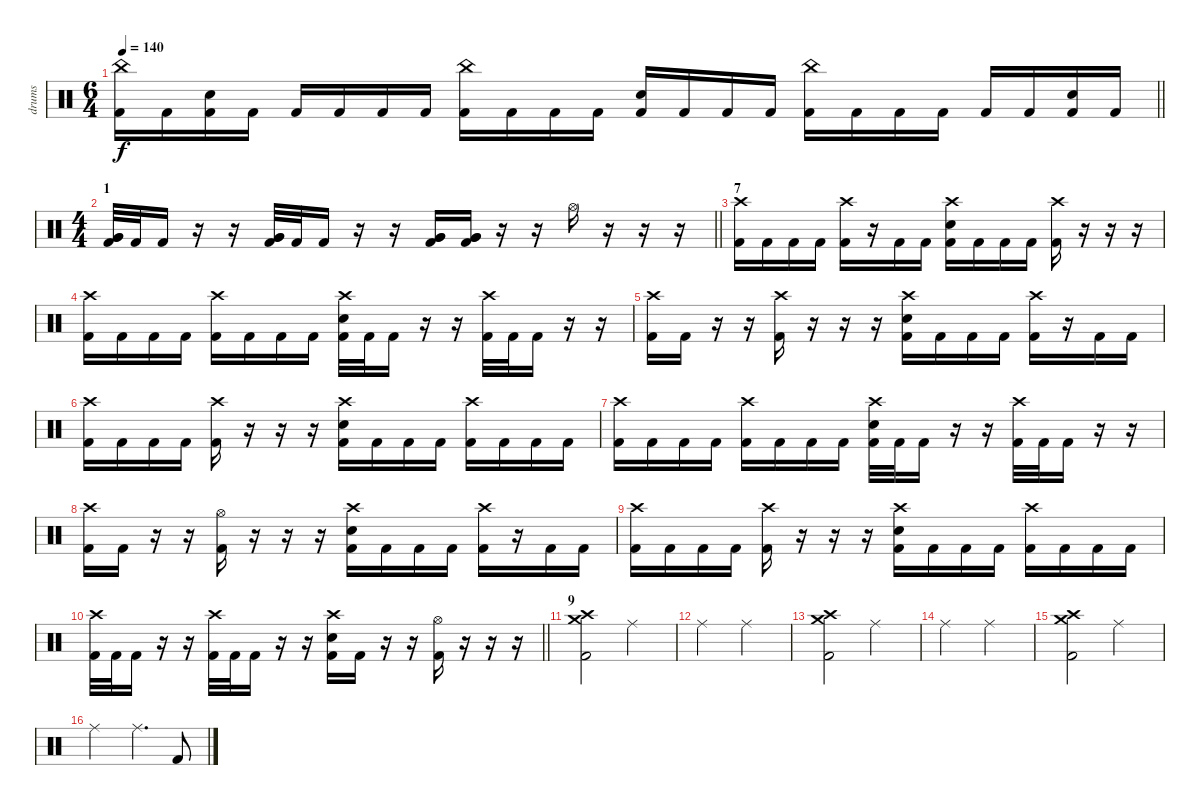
\track ("drums" "drums") {instrument percussion}
\staff {score}
\articulation defaults
\ts (6 4)
\tempo 140
\clef neutral
\barLineRight lightlight
\ks c
("China (hit)" "Kick (hit) 2").16{dy f} "Kick (hit) 2".16 ("Electric Snare (hit)" "Kick (hit) 2").16 "Kick (hit) 2".16 "Kick (hit) 2".16 "Kick (hit) 2".16 "Kick (hit) 2".16 "Kick (hit) 2".16 ("China (hit)" "Kick (hit) 2").16 "Kick (hit) 2".16 "Kick (hit) 2".16 "Kick (hit) 2".16 ("Electric Snare (hit)" "Kick (hit) 2").16 "Kick (hit) 2".16 "Kick (hit) 2".16 "Kick (hit) 2".16 ("China (hit)" "Kick (hit) 2").16 "Kick (hit) 2".16 "Kick (hit) 2".16 "Kick (hit) 2".16 "Kick (hit) 2".16 "Kick (hit) 2".16 ("Electric Snare (hit)" "Kick (hit) 2").16 "Kick (hit) 2".16 |
\ts (4 4)
\section ("" "1")
\barLineRight lightlight
("Very Low Tom (hit)" "Very Low Tom (hit)" "Kick (hit) 2").32 "Kick (hit) 2".32 "Kick (hit) 2".16 r.16 r.16 ("Very Low Tom (hit)" "Very Low Tom (hit)" "Kick (hit) 2").32 "Kick (hit) 2".32 "Kick (hit) 2".16 r.16 r.16 ("Very Low Tom (hit)" "Very Low Tom (hit)" "Kick (hit) 2").16 ("Very Low Tom (hit)" "Very Low Tom (hit)" "Kick (hit) 2").16 r.16 r.16 "Hi-Hat (open)".16 r.16 r.16 r.16 |
\section ("" "7")
("Crash high (hit)" "Kick (hit) 2").16 "Kick (hit) 2".16 "Kick (hit) 2".16 "Kick (hit) 2".16 ("Crash high (hit)" "Kick (hit) 2").16 r.16 "Kick (hit) 2".16 "Kick (hit) 2".16 ("Crash high (hit)" "Electric Snare (hit)" "Kick (hit) 2").16 "Kick (hit) 2".16 "Kick (hit) 2".16 "Kick (hit) 2".16 ("Crash high (hit)" "Kick (hit) 2").16 r.16 r.16 r.16 |
("Crash high (hit)" "Kick (hit) 2").16 "Kick (hit) 2".16 "Kick (hit) 2".16 "Kick (hit) 2".16 ("Crash high (hit)" "Kick (hit) 2").16 "Kick (hit) 2".16 "Kick (hit) 2".16 "Kick (hit) 2".16 ("Crash high (hit)" "Electric Snare (hit)" "Kick (hit) 2").32 "Kick (hit) 2".32 "Kick (hit) 2".16 r.16 r.16 ("Crash high (hit)" "Kick (hit) 2").32 "Kick (hit) 2".32 "Kick (hit) 2".16 r.16 r.16 |
("Crash high (hit)" "Kick (hit) 2").16 "Kick (hit) 2".16 r.16 r.16 ("Crash high (hit)" "Kick (hit) 2").16 r.16 r.16 r.16 ("Crash high (hit)" "Electric Snare (hit)" "Kick (hit) 2").16 "Kick (hit) 2".16 "Kick (hit) 2".16 "Kick (hit) 2".16 ("Crash high (hit)" "Kick (hit) 2").16 r.16 "Kick (hit) 2".16 "Kick (hit) 2".16 |
("Crash high (hit)" "Kick (hit) 2").16 "Kick (hit) 2".16 "Kick (hit) 2".16 "Kick (hit) 2".16 ("Crash high (hit)" "Kick (hit) 2").16 r.16 r.16 r.16 ("Crash high (hit)" "Electric Snare (hit)" "Kick (hit) 2").16 "Kick (hit) 2".16 "Kick (hit) 2".16 "Kick (hit) 2".16 ("Crash high (hit)" "Kick (hit) 2").16 "Kick (hit) 2".16 "Kick (hit) 2".16 "Kick (hit) 2".16 |
("Crash high (hit)" "Kick (hit) 2").16 "Kick (hit) 2".16 "Kick (hit) 2".16 "Kick (hit) 2".16 ("Crash high (hit)" "Kick (hit) 2").16 "Kick (hit) 2".16 "Kick (hit) 2".16 "Kick (hit) 2".16 ("Crash high (hit)" "Electric Snare (hit)" "Kick (hit) 2").32 "Kick (hit) 2".32 "Kick (hit) 2".16 r.16 r.16 ("Crash high (hit)" "Kick (hit) 2").32 "Kick (hit) 2".32 "Kick (hit) 2".16 r.16 r.16 |
("Crash high (hit)" "Kick (hit) 2").16 "Kick (hit) 2".16 r.16 r.16 ("Hi-Hat (open)" "Kick (hit) 2").16 r.16 r.16 r.16 ("Crash high (hit)" "Electric Snare (hit)" "Kick (hit) 2").16 "Kick (hit) 2".16 "Kick (hit) 2".16 "Kick (hit) 2".16 ("Crash high (hit)" "Kick (hit) 2").16 r.16 "Kick (hit) 2".16 "Kick (hit) 2".16 |
("Crash high (hit)" "Kick (hit) 2").16 "Kick (hit) 2".16 "Kick (hit) 2".16 "Kick (hit) 2".16 ("Crash high (hit)" "Kick (hit) 2").16 r.16 r.16 r.16 ("Crash high (hit)" "Electric Snare (hit)" "Kick (hit) 2").16 "Kick (hit) 2".16 "Kick (hit) 2".16 "Kick (hit) 2".16 ("Crash high (hit)" "Kick (hit) 2").16 "Kick (hit) 2".16 "Kick (hit) 2".16 "Kick (hit) 2".16 |
\barLineRight lightlight
("Crash high (hit)" "Kick (hit) 2").32 "Kick (hit) 2".32 "Kick (hit) 2".16 r.16 r.16 ("Crash high (hit)" "Kick (hit) 2").32 "Kick (hit) 2".32 "Kick (hit) 2".16 r.16 r.16 ("Crash high (hit)" "Electric Snare (hit)" "Kick (hit) 2").16 "Kick (hit) 2".16 r.16 r.16 ("Hi-Hat (open)" "Kick (hit) 2").16 r.16 r.16 r.16 |
\section ("" "9")
("Crash high (hit)" "Crash medium (hit)" "Kick (hit) 2").2 "Ride (middle)".2 |
"Ride (middle)".2 "Ride (middle)".2 |
("Crash high (hit)" "Crash medium (hit)" "Kick (hit) 2").2 "Ride (middle)".2 |
"Ride (middle)".2 "Ride (middle)".2 |
("Crash high (hit)" "Crash medium (hit)" "Kick (hit) 2").2 "Ride (middle)".2 |
"Ride (middle)".2 "Ride (middle)".4{d} "Kick (hit) 2".8
